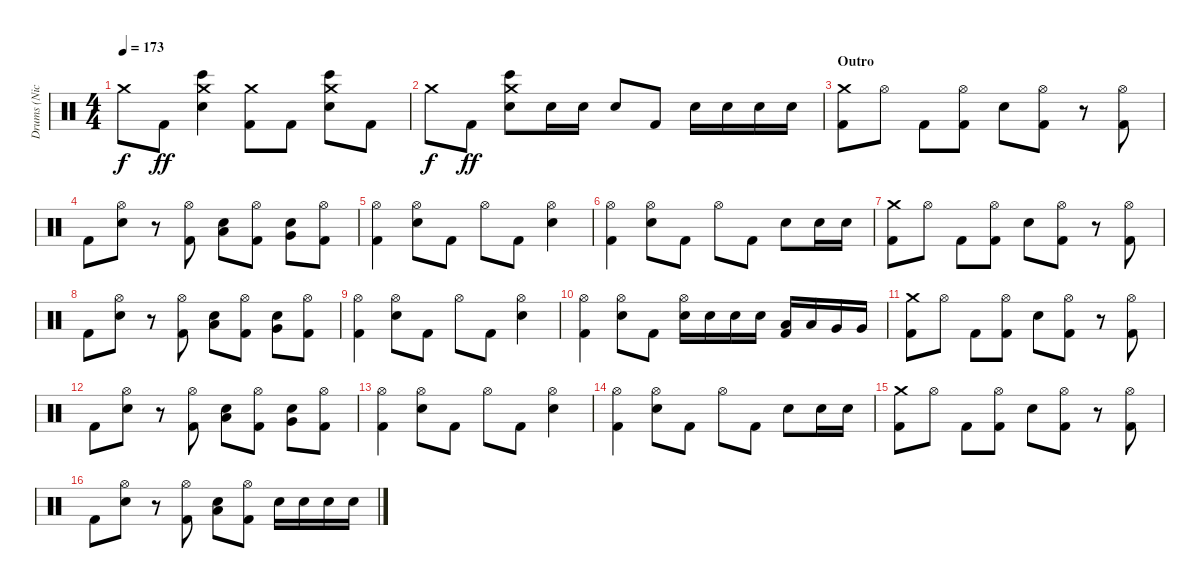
\track ("Drums (Nick Oshiro)" "Drums (Nic") {instrument percussion}
\staff {score}
\articulation defaults
\ts (4 4)
\tempo 173
\clef neutral
\ks c "Crash medium (hit)".8{dy f} "Kick (hit) 2".8{dy ff}
("Crash medium (hit)" "Bongo High (hit)" "Snare (hit) 2").4 ("Crash medium (hit)" "Kick (hit) 2").8 "Kick (hit) 2".8 ("Crash medium (hit)" "Bongo High (hit)" "Snare (hit) 2").8 "Kick (hit) 2".8 |
"Crash medium (hit)".8{dy f} "Kick (hit) 2".8{dy ff} ("Crash medium (hit)" "Bongo High (hit)" "Snare (hit) 2").8 "Snare (hit) 2".16 "Snare (hit) 2".16 "Snare (hit) 2".8 "Kick (hit) 2".8 "Snare (hit) 2".16 "Snare (hit) 2".16 "Snare (hit) 2".16 "Snare (hit) 2".16 |
\section ("" "Outro")
("Crash medium (hit)" "Kick (hit) 2").8 "Hi-Hat (open)".8 "Kick (hit) 2".8 ("Hi-Hat (open)" "Kick (hit) 2").8 "Snare (hit) 2".8 ("Hi-Hat (open)" "Kick (hit) 2").8 r.8 ("Hi-Hat (open)" "Kick (hit) 2").8 |
"Kick (hit) 2".8 ("Hi-Hat (open)" "Snare (hit) 2").8 r.8 ("Hi-Hat (open)" "Kick (hit) 2").8 ("Low Tom (hit)" "Snare (hit) 2").8 ("Hi-Hat (open)" "Kick (hit) 2").8 ("Very Low Tom (hit)" "Snare (hit) 2").8 ("Hi-Hat (open)" "Kick (hit) 2").8 |
("Hi-Hat (open)" "Kick (hit) 2").4 ("Hi-Hat (open)" "Snare (hit) 2").8 "Kick (hit) 2".8 "Hi-Hat (open)".8 "Kick (hit) 2".8 ("Hi-Hat (open)" "Snare (hit) 2").4 |
("Hi-Hat (open)" "Kick (hit) 2").4 ("Hi-Hat (open)" "Snare (hit) 2").8 "Kick (hit) 2".8 "Hi-Hat (open)".8 "Kick (hit) 2".8 "Snare (hit) 2".8 "Snare (hit) 2".16 "Snare (hit) 2".16 |
("Crash medium (hit)" "Kick (hit) 2").8 "Hi-Hat (open)".8 "Kick (hit) 2".8 ("Hi-Hat (open)" "Kick (hit) 2").8 "Snare (hit) 2".8 ("Hi-Hat (open)" "Kick (hit) 2").8 r.8 ("Hi-Hat (open)" "Kick (hit) 2").8 |
"Kick (hit) 2".8 ("Hi-Hat (open)" "Snare (hit) 2").8 r.8 ("Hi-Hat (open)" "Kick (hit) 2").8 ("Low Tom (hit)" "Snare (hit) 2").8 ("Hi-Hat (open)" "Kick (hit) 2").8 ("Very Low Tom (hit)" "Snare (hit) 2").8 ("Hi-Hat (open)" "Kick (hit) 2").8 |
("Hi-Hat (open)" "Kick (hit) 2").4 ("Hi-Hat (open)" "Snare (hit) 2").8 "Kick (hit) 2".8 "Hi-Hat (open)".8 "Kick (hit) 2".8 ("Hi-Hat (open)" "Snare (hit) 2").4 |
("Hi-Hat (open)" "Kick (hit) 2").4 ("Hi-Hat (open)" "Snare (hit) 2").8 "Kick (hit) 2".8 ("Hi-Hat (open)" "Snare (hit) 2").16 "Snare (hit) 2".16 "Snare (hit) 2".16 "Snare (hit) 2".16 ("Low Tom (hit)" "Kick (hit) 2").16 "Low Tom (hit)".16 "Very Low Tom (hit)".16 "Very Low Tom (hit)".16 |
("Crash medium (hit)" "Kick (hit) 2").8 "Hi-Hat (open)".8 "Kick (hit) 2".8 ("Hi-Hat (open)" "Kick (hit) 2").8 "Snare (hit) 2".8 ("Hi-Hat (open)" "Kick (hit) 2").8 r.8 ("Hi-Hat (open)" "Kick (hit) 2").8 |
"Kick (hit) 2".8 ("Hi-Hat (open)" "Snare (hit) 2").8 r.8 ("Hi-Hat (open)" "Kick (hit) 2").8 ("Low Tom (hit)" "Snare (hit) 2").8 ("Hi-Hat (open)" "Kick (hit) 2").8 ("Very Low Tom (hit)" "Snare (hit) 2").8 ("Hi-Hat (open)" "Kick (hit) 2").8 |
("Hi-Hat (open)" "Kick (hit) 2").4 ("Hi-Hat (open)" "Snare (hit) 2").8 "Kick (hit) 2".8 "Hi-Hat (open)".8 "Kick (hit) 2".8 ("Hi-Hat (open)" "Snare (hit) 2").4 |
("Hi-Hat (open)" "Kick (hit) 2").4 ("Hi-Hat (open)" "Snare (hit) 2").8 "Kick (hit) 2".8 "Hi-Hat (open)".8 "Kick (hit) 2".8 "Snare (hit) 2".8 "Snare (hit) 2".16 "Snare (hit) 2".16 |
("Crash medium (hit)" "Kick (hit) 2").8 "Hi-Hat (open)".8 "Kick (hit) 2".8 ("Hi-Hat (open)" "Kick (hit) 2").8 "Snare (hit) 2".8 ("Hi-Hat (open)" "Kick (hit) 2").8 r.8 ("Hi-Hat (open)" "Kick (hit) 2").8 |
"Kick (hit) 2".8 ("Hi-Hat (open)" "Snare (hit) 2").8 r.8 ("Hi-Hat (open)" "Kick (hit) 2").8 ("Low Tom (hit)" "Snare (hit) 2").8 ("Hi-Hat (open)" "Kick (hit) 2").8 "Snare (hit) 2".16 "Snare (hit) 2".16 "Snare (hit) 2".16 "Snare (hit) 2".16
